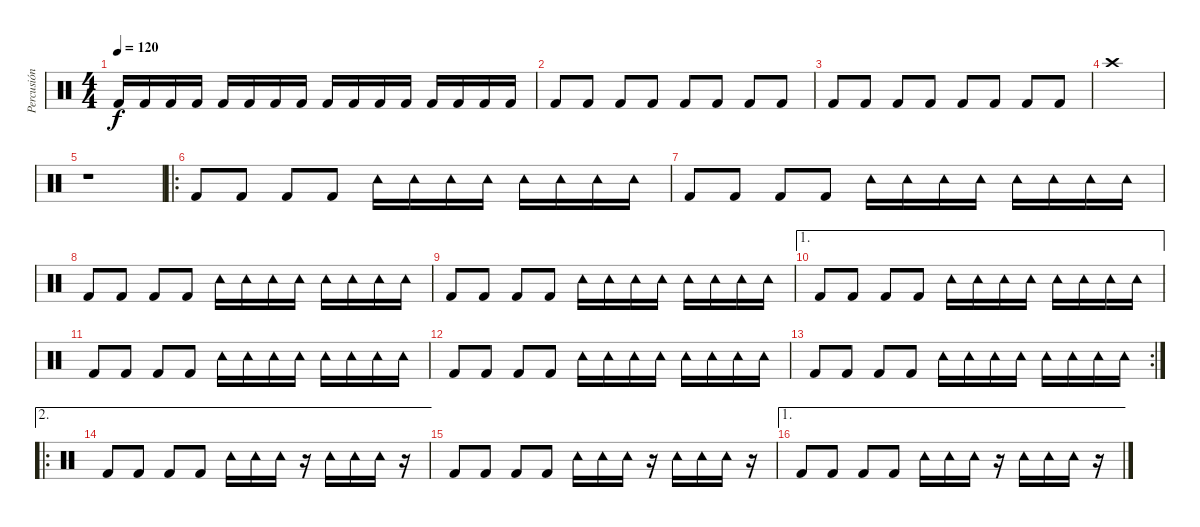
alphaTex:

\track ("Percusión" "Percusión") {instrument percussion}
\staff {score}
\articulation defaults
\ts (4 4)
\tempo 120
\clef neutral
\ks c "Kick (hit) 2".16{dy f} "Kick (hit) 2".16 "Kick (hit) 2".16 "Kick (hit) 2".16 "Kick (hit) 2".16 "Kick (hit) 2".16 "Kick (hit) 2".16 "Kick (hit) 2".16 "Kick (hit) 2".16 "Kick (hit) 2".16 "Kick (hit) 2".16 "Kick (hit) 2".16 "Kick (hit) 2".16 "Kick (hit) 2".16 "Kick (hit) 2".16 "Kick (hit) 2".16
|
"Kick (hit) 2".8 "Kick (hit) 2".8 "Kick (hit) 2".8 "Kick (hit) 2".8 "Kick (hit) 2".8 "Kick (hit) 2".8 "Kick (hit) 2".8 "Kick (hit) 2".8 |
"Kick (hit) 2".8 "Kick (hit) 2".8 "Kick (hit) 2".8 "Kick (hit) 2".8 "Kick (hit) 2".8 "Kick (hit) 2".8 "Kick (hit) 2".8 "Kick (hit) 2".8 |
"Crash high (hit)".1 |
r.1 |
\ro "Kick (hit) 2".8 "Kick (hit) 2".8 "Kick (hit) 2".8 "Kick (hit) 2".8 "Tambourine (hit)".16 "Tambourine (hit)".16 "Tambourine (hit)".16 "Tambourine (hit)".16 "Tambourine (hit)".16 "Tambourine (hit)".16 "Tambourine (hit)".16 "Tambourine (hit)".16
|
"Kick (hit) 2".8 "Kick (hit) 2".8 "Kick (hit) 2".8 "Kick (hit) 2".8 "Tambourine (hit)".16 "Tambourine (hit)".16 "Tambourine (hit)".16 "Tambourine (hit)".16 "Tambourine (hit)".16 "Tambourine (hit)".16 "Tambourine (hit)".16 "Tambourine (hit)".16 |
"Kick (hit) 2".8 "Kick (hit) 2".8 "Kick (hit) 2".8 "Kick (hit) 2".8 "Tambourine (hit)".16 "Tambourine (hit)".16 "Tambourine (hit)".16 "Tambourine (hit)".16 "Tambourine (hit)".16 "Tambourine (hit)".16 "Tambourine (hit)".16 "Tambourine (hit)".16 |
"Kick (hit) 2".8 "Kick (hit) 2".8 "Kick (hit) 2".8 "Kick (hit) 2".8 "Tambourine (hit)".16 "Tambourine (hit)".16 "Tambourine (hit)".16 "Tambourine (hit)".16 "Tambourine (hit)".16 "Tambourine (hit)".16 "Tambourine (hit)".16 "Tambourine (hit)".16 |
\ae 1 "Kick (hit) 2".8 "Kick (hit) 2".8 "Kick (hit) 2".8 "Kick (hit) 2".8 "Tambourine (hit)".16 "Tambourine (hit)".16 "Tambourine (hit)".16 "Tambourine (hit)".16 "Tambourine (hit)".16 "Tambourine (hit)".16 "Tambourine (hit)".16 "Tambourine (hit)".16
|
"Kick (hit) 2".8 "Kick (hit) 2".8 "Kick (hit) 2".8 "Kick (hit) 2".8 "Tambourine (hit)".16 "Tambourine (hit)".16 "Tambourine (hit)".16 "Tambourine (hit)".16 "Tambourine (hit)".16 "Tambourine (hit)".16 "Tambourine (hit)".16 "Tambourine (hit)".16 |
"Kick (hit) 2".8 "Kick (hit) 2".8 "Kick (hit) 2".8 "Kick (hit) 2".8 "Tambourine (hit)".16 "Tambourine (hit)".16 "Tambourine (hit)".16 "Tambourine (hit)".16 "Tambourine (hit)".16 "Tambourine (hit)".16 "Tambourine (hit)".16 "Tambourine (hit)".16 |
\rc 2 "Kick (hit) 2".8 "Kick (hit) 2".8 "Kick (hit) 2".8 "Kick (hit) 2".8 "Tambourine (hit)".16 "Tambourine (hit)".16 "Tambourine (hit)".16 "Tambourine (hit)".16 "Tambourine (hit)".16 "Tambourine (hit)".16 "Tambourine (hit)".16 "Tambourine (hit)".16
|
\ae 2
\ro "Kick (hit) 2".8 "Kick (hit) 2".8 "Kick (hit) 2".8 "Kick (hit) 2".8 "Tambourine (hit)".16 "Tambourine (hit)".16 "Tambourine (hit)".16
r.16 "Tambourine (hit)".16 "Tambourine (hit)".16 "Tambourine (hit)".16 r.16 |
"Kick (hit) 2".8 "Kick (hit) 2".8 "Kick (hit) 2".8 "Kick (hit) 2".8 "Tambourine (hit)".16 "Tambourine (hit)".16 "Tambourine (hit)".16 r.16 "Tambourine (hit)".16 "Tambourine (hit)".16 "Tambourine (hit)".16 r.16 |
\ae 1 "Kick (hit) 2".8 "Kick (hit) 2".8 "Kick (hit) 2".8 "Kick (hit) 2".8 "Tambourine (hit)".16 "Tambourine (hit)".16 "Tambourine (hit)".16
r.16 "Tambourine (hit)".16 "Tambourine (hit)".16 "Tambourine (hit)".16 r.16
